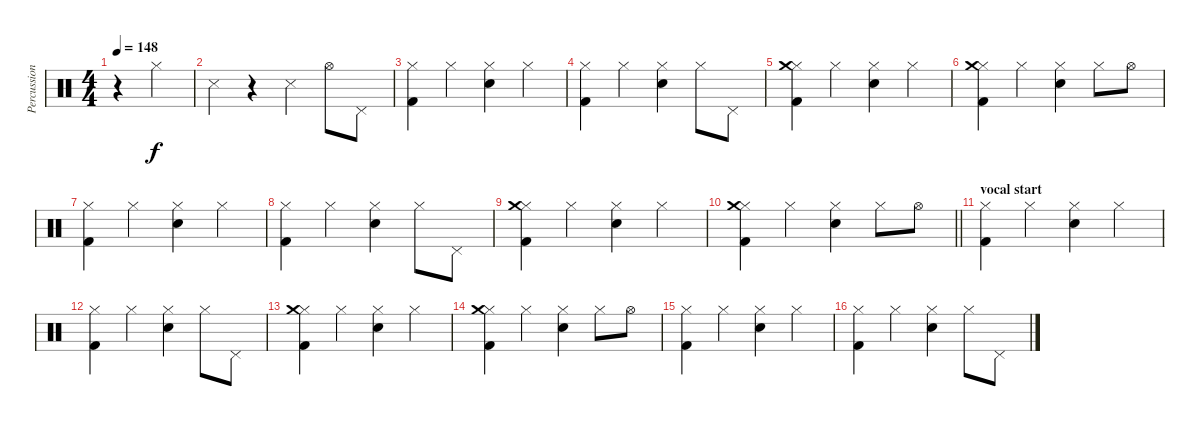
\track ("Percussions" "Percussion") {instrument percussion}
\staff {score}
\articulation defaults
\ts (4 4)
\tempo 148
\clef neutral
\ks c
r.4{dy f} "Hi-Hat (closed)".4 |
"Snare (side stick) 3".4 r.4 "Snare (side stick) 3".4 "Hi-Hat (open)".8 "Pedal Hi-Hat (hit)".8 |
("Hi-Hat (closed)" "Kick (hit) 2").4 "Hi-Hat (closed)".4 ("Hi-Hat (closed)" "Snare (hit) 2").4 "Hi-Hat (closed)".4 |
("Hi-Hat (closed)" "Kick (hit) 2").4 "Hi-Hat (closed)".4 ("Hi-Hat (closed)" "Snare (hit) 2").4 "Hi-Hat (closed)".8 "Pedal Hi-Hat (hit)".8 |
("Hi-Hat (closed)" "Kick (hit) 2" "Crash medium (hit)").4 "Hi-Hat (closed)".4 ("Hi-Hat (closed)" "Snare (hit) 2").4 "Hi-Hat (closed)".4 |
("Hi-Hat (closed)" "Kick (hit) 2" "Crash medium (hit)").4 "Hi-Hat (closed)".4 ("Hi-Hat (closed)" "Snare (hit) 2").4 "Hi-Hat (closed)".8 "Hi-Hat (open)".8 |
("Hi-Hat (closed)" "Kick (hit) 2").4 "Hi-Hat (closed)".4 ("Hi-Hat (closed)" "Snare (hit) 2").4 "Hi-Hat (closed)".4 |
("Hi-Hat (closed)" "Kick (hit) 2").4 "Hi-Hat (closed)".4 ("Hi-Hat (closed)" "Snare (hit) 2").4 "Hi-Hat (closed)".8 "Pedal Hi-Hat (hit)".8 |
("Hi-Hat (closed)" "Kick (hit) 2" "Crash medium (hit)").4 "Hi-Hat (closed)".4 ("Hi-Hat (closed)" "Snare (hit) 2").4 "Hi-Hat (closed)".4 |
\barLineRight lightlight
("Hi-Hat (closed)" "Kick (hit) 2" "Crash medium (hit)").4 "Hi-Hat (closed)".4 ("Hi-Hat (closed)" "Snare (hit) 2").4 "Hi-Hat (closed)".8 "Hi-Hat (open)".8 |
\section ("" "vocal start")
("Hi-Hat (closed)" "Kick (hit) 2").4 "Hi-Hat (closed)".4 ("Hi-Hat (closed)" "Snare (hit) 2").4 "Hi-Hat (closed)".4 |
("Hi-Hat (closed)" "Kick (hit) 2").4 "Hi-Hat (closed)".4 ("Hi-Hat (closed)" "Snare (hit) 2").4 "Hi-Hat (closed)".8 "Pedal Hi-Hat (hit)".8 |
("Hi-Hat (closed)" "Kick (hit) 2" "Crash medium (hit)").4 "Hi-Hat (closed)".4 ("Hi-Hat (closed)" "Snare (hit) 2").4 "Hi-Hat (closed)".4 |
("Hi-Hat (closed)" "Kick (hit) 2" "Crash medium (hit)").4 "Hi-Hat (closed)".4 ("Hi-Hat (closed)" "Snare (hit) 2").4 "Hi-Hat (closed)".8 "Hi-Hat (open)".8 |
("Hi-Hat (closed)" "Kick (hit) 2").4 "Hi-Hat (closed)".4 ("Hi-Hat (closed)" "Snare (hit) 2").4 "Hi-Hat (closed)".4 |
("Hi-Hat (closed)" "Kick (hit) 2").4 "Hi-Hat (closed)".4 ("Hi-Hat (closed)" "Snare (hit) 2").4 "Hi-Hat (closed)".8 "Pedal Hi-Hat (hit)".8
